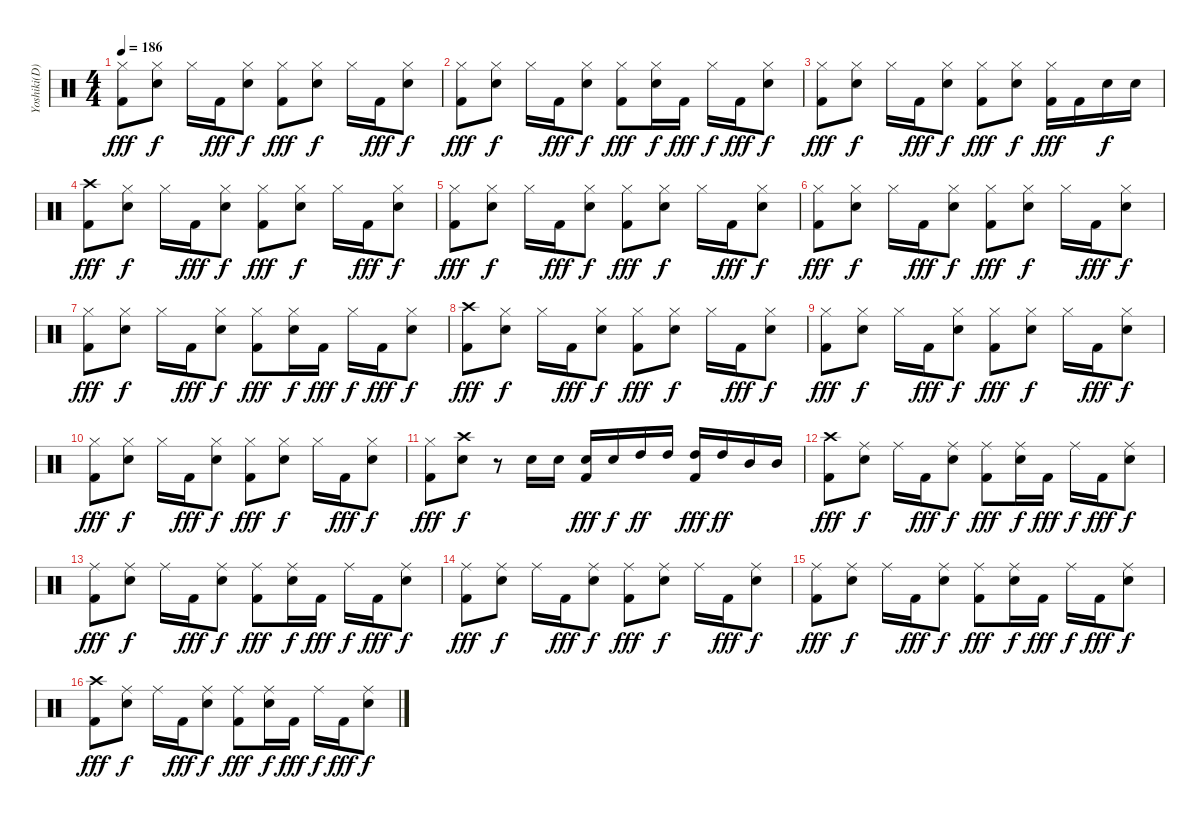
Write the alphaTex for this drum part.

\track ("Yoshiki(D)" "Yoshiki(D)") {instrument percussion}
\staff {score}
\articulation defaults
\ts (4 4)
\tempo 186
\clef neutral
\ks c
("Hi-Hat (closed)" "Kick (hit) 2").8{dy fff} ("Hi-Hat (closed)" "Electric Snare (hit)").8{dy f} "Hi-Hat (closed)".16 "Kick (hit) 2".16{dy fff} ("Hi-Hat (closed)" "Electric Snare (hit)").8{dy f} ("Hi-Hat (closed)" "Kick (hit) 2").8{dy fff} ("Hi-Hat (closed)" "Electric Snare (hit)").8{dy f} "Hi-Hat (closed)".16 "Kick (hit) 2".16{dy fff} ("Hi-Hat (closed)" "Electric Snare (hit)").8{dy f} |
("Hi-Hat (closed)" "Kick (hit) 2").8{dy fff} ("Hi-Hat (closed)" "Electric Snare (hit)").8{dy f} "Hi-Hat (closed)".16 "Kick (hit) 2".16{dy fff} ("Hi-Hat (closed)" "Electric Snare (hit)").8{dy f} ("Hi-Hat (closed)" "Kick (hit) 2").8{dy fff} ("Hi-Hat (closed)" "Electric Snare (hit)").16{dy f} "Kick (hit) 2".16{dy fff} "Hi-Hat (closed)".16{dy f} "Kick (hit) 2".16{dy fff} ("Hi-Hat (closed)" "Electric Snare (hit)").8{dy f} |
("Hi-Hat (closed)" "Kick (hit) 2").8{dy fff} ("Hi-Hat (closed)" "Electric Snare (hit)").8{dy f} "Hi-Hat (closed)".16 "Kick (hit) 2".16{dy fff} ("Hi-Hat (closed)" "Electric Snare (hit)").8{dy f} ("Hi-Hat (closed)" "Kick (hit) 2").8{dy fff} ("Hi-Hat (closed)" "Electric Snare (hit)").8{dy f} ("Hi-Hat (closed)" "Kick (hit) 2").16{dy fff} "Kick (hit) 2".16 "Electric Snare (hit)".16{dy f} "Electric Snare (hit)".16 |
("Crash high (hit)" "Kick (hit) 2").8{dy fff} ("Hi-Hat (closed)" "Electric Snare (hit)").8{dy f} "Hi-Hat (closed)".16 "Kick (hit) 2".16{dy fff} ("Hi-Hat (closed)" "Electric Snare (hit)").8{dy f} ("Hi-Hat (closed)" "Kick (hit) 2").8{dy fff} ("Hi-Hat (closed)" "Electric Snare (hit)").8{dy f} "Hi-Hat (closed)".16 "Kick (hit) 2".16{dy fff} ("Hi-Hat (closed)" "Electric Snare (hit)").8{dy f} |
("Hi-Hat (closed)" "Kick (hit) 2").8{dy fff} ("Hi-Hat (closed)" "Electric Snare (hit)").8{dy f} "Hi-Hat (closed)".16 "Kick (hit) 2".16{dy fff} ("Hi-Hat (closed)" "Electric Snare (hit)").8{dy f} ("Hi-Hat (closed)" "Kick (hit) 2").8{dy fff} ("Hi-Hat (closed)" "Electric Snare (hit)").8{dy f} "Hi-Hat (closed)".16 "Kick (hit) 2".16{dy fff} ("Hi-Hat (closed)" "Electric Snare (hit)").8{dy f} |
("Hi-Hat (closed)" "Kick (hit) 2").8{dy fff} ("Hi-Hat (closed)" "Electric Snare (hit)").8{dy f} "Hi-Hat (closed)".16 "Kick (hit) 2".16{dy fff} ("Hi-Hat (closed)" "Electric Snare (hit)").8{dy f} ("Hi-Hat (closed)" "Kick (hit) 2").8{dy fff} ("Hi-Hat (closed)" "Electric Snare (hit)").8{dy f} "Hi-Hat (closed)".16 "Kick (hit) 2".16{dy fff} ("Hi-Hat (closed)" "Electric Snare (hit)").8{dy f} |
("Hi-Hat (closed)" "Kick (hit) 2").8{dy fff} ("Hi-Hat (closed)" "Electric Snare (hit)").8{dy f} "Hi-Hat (closed)".16 "Kick (hit) 2".16{dy fff} ("Hi-Hat (closed)" "Electric Snare (hit)").8{dy f} ("Hi-Hat (closed)" "Kick (hit) 2").8{dy fff} ("Hi-Hat (closed)" "Electric Snare (hit)").16{dy f} "Kick (hit) 2".16{dy fff} "Hi-Hat (closed)".16{dy f} "Kick (hit) 2".16{dy fff} ("Hi-Hat (closed)" "Electric Snare (hit)").8{dy f} |
("Crash high (hit)" "Kick (hit) 2").8{dy fff} ("Hi-Hat (closed)" "Electric Snare (hit)").8{dy f} "Hi-Hat (closed)".16 "Kick (hit) 2".16{dy fff} ("Hi-Hat (closed)" "Electric Snare (hit)").8{dy f} ("Hi-Hat (closed)" "Kick (hit) 2").8{dy fff} ("Hi-Hat (closed)" "Electric Snare (hit)").8{dy f} "Hi-Hat (closed)".16 "Kick (hit) 2".16{dy fff} ("Hi-Hat (closed)" "Electric Snare (hit)").8{dy f} |
("Hi-Hat (closed)" "Kick (hit) 2").8{dy fff} ("Hi-Hat (closed)" "Electric Snare (hit)").8{dy f} "Hi-Hat (closed)".16 "Kick (hit) 2".16{dy fff} ("Hi-Hat (closed)" "Electric Snare (hit)").8{dy f} ("Hi-Hat (closed)" "Kick (hit) 2").8{dy fff} ("Hi-Hat (closed)" "Electric Snare (hit)").8{dy f} "Hi-Hat (closed)".16 "Kick (hit) 2".16{dy fff} ("Hi-Hat (closed)" "Electric Snare (hit)").8{dy f} |
("Hi-Hat (closed)" "Kick (hit) 2").8{dy fff} ("Hi-Hat (closed)" "Electric Snare (hit)").8{dy f} "Hi-Hat (closed)".16 "Kick (hit) 2".16{dy fff} ("Hi-Hat (closed)" "Electric Snare (hit)").8{dy f} ("Hi-Hat (closed)" "Kick (hit) 2").8{dy fff} ("Hi-Hat (closed)" "Electric Snare (hit)").8{dy f} "Hi-Hat (closed)".16 "Kick (hit) 2".16{dy fff} ("Hi-Hat (closed)" "Electric Snare (hit)").8{dy f} |
("Hi-Hat (closed)" "Kick (hit) 2").8{dy fff} ("Crash high (hit)" "Electric Snare (hit)").8{dy f} r.8 "Electric Snare (hit)".16 "Electric Snare (hit)".16 ("Electric Snare (hit)" "Kick (hit) 2").16{dy fff} "Electric Snare (hit)".16{dy f} "High Tom (hit)".16{dy ff} "High Tom (hit)".16 ("High Tom (hit)" "Kick (hit) 2").16{dy fff} "High Tom (hit)".16{dy ff} "Mid Tom (hit)".16 "Mid Tom (hit)".16 |
("Crash high (hit)" "Kick (hit) 2").8{dy fff} ("Ride (middle)" "Electric Snare (hit)").8{dy f} "Ride (middle)".16 "Kick (hit) 2".16{dy fff} ("Ride (middle)" "Electric Snare (hit)").8{dy f} ("Ride (middle)" "Kick (hit) 2").8{dy fff} ("Ride (middle)" "Electric Snare (hit)").16{dy f} "Kick (hit) 2".16{dy fff} "Ride (middle)".16{dy f} "Kick (hit) 2".16{dy fff} ("Ride (middle)" "Electric Snare (hit)").8{dy f} |
("Ride (middle)" "Kick (hit) 2").8{dy fff} ("Ride (middle)" "Electric Snare (hit)").8{dy f} "Ride (middle)".16 "Kick (hit) 2".16{dy fff} ("Ride (middle)" "Electric Snare (hit)").8{dy f} ("Ride (middle)" "Kick (hit) 2").8{dy fff} ("Ride (middle)" "Electric Snare (hit)").16{dy f} "Kick (hit) 2".16{dy fff} "Ride (middle)".16{dy f} "Kick (hit) 2".16{dy fff} ("Ride (middle)" "Electric Snare (hit)").8{dy f} |
("Ride (middle)" "Kick (hit) 2").8{dy fff} ("Ride (middle)" "Electric Snare (hit)").8{dy f} "Ride (middle)".16 "Kick (hit) 2".16{dy fff} ("Ride (middle)" "Electric Snare (hit)").8{dy f} ("Ride (middle)" "Kick (hit) 2").8{dy fff} ("Ride (middle)" "Electric Snare (hit)").8{dy f} "Ride (middle)".16 "Kick (hit) 2".16{dy fff} ("Ride (middle)" "Electric Snare (hit)").8{dy f} |
("Ride (middle)" "Kick (hit) 2").8{dy fff} ("Ride (middle)" "Electric Snare (hit)").8{dy f} "Ride (middle)".16 "Kick (hit) 2".16{dy fff} ("Ride (middle)" "Electric Snare (hit)").8{dy f} ("Ride (middle)" "Kick (hit) 2").8{dy fff} ("Ride (middle)" "Electric Snare (hit)").16{dy f} "Kick (hit) 2".16{dy fff} "Ride (middle)".16{dy f} "Kick (hit) 2".16{dy fff} ("Ride (middle)" "Electric Snare (hit)").8{dy f} |
("Crash high (hit)" "Kick (hit) 2").8{dy fff} ("Ride (middle)" "Electric Snare (hit)").8{dy f} "Ride (middle)".16 "Kick (hit) 2".16{dy fff} ("Ride (middle)" "Electric Snare (hit)").8{dy f} ("Ride (middle)" "Kick (hit) 2").8{dy fff} ("Ride (middle)" "Electric Snare (hit)").16{dy f} "Kick (hit) 2".16{dy fff} "Ride (middle)".16{dy f} "Kick (hit) 2".16{dy fff} ("Ride (middle)" "Electric Snare (hit)").8{dy f}
